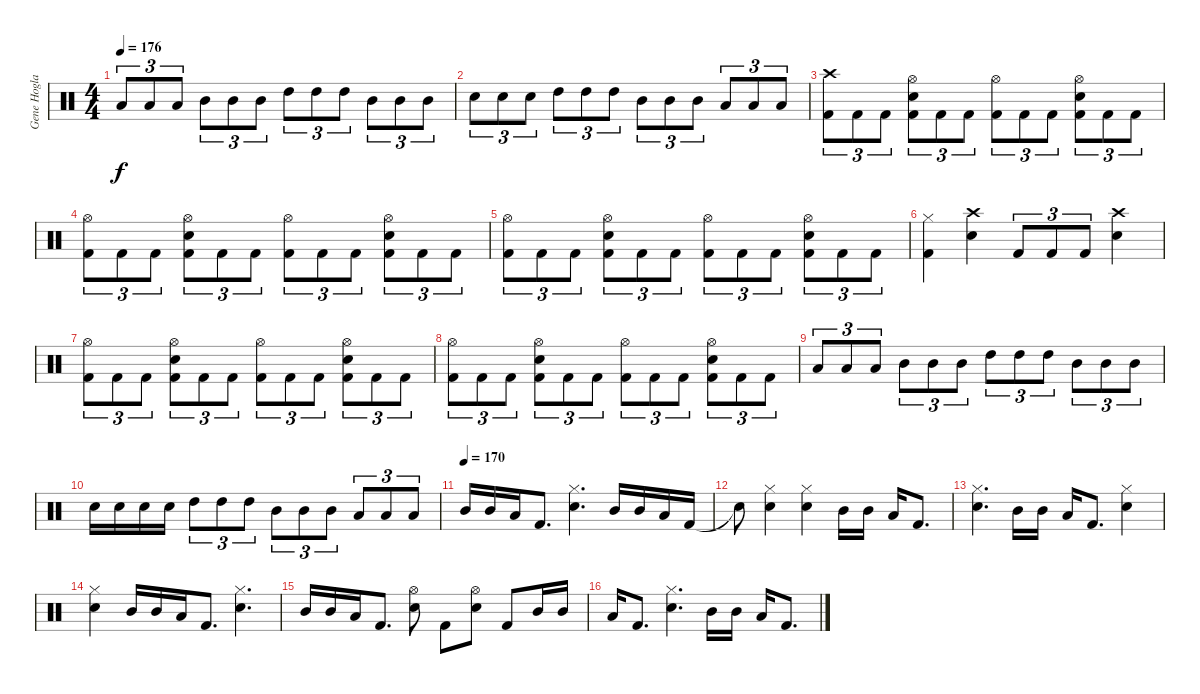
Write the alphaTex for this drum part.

\track ("Gene Hoglan" "Gene Hogla") {instrument percussion}
\staff {score}
\articulation defaults
\ts (4 4)
\tempo 176
\clef neutral
\ks c "Low Tom (hit)".8{tu (3 2) dy f} "Low Tom (hit)".8{tu (3 2)} "Low Tom (hit)".8{tu (3 2)} "Mid Tom (hit)".8{tu (3 2)} "Mid Tom (hit)".8{tu (3 2)} "Mid Tom (hit)".8{tu (3 2)} "High Tom (hit)".8{tu (3 2)} "High Tom (hit)".8{tu (3 2)} "High Tom (hit)".8{tu (3 2)} "Mid Tom (hit)".8{tu (3 2)} "Mid Tom (hit)".8{tu (3 2)} "Mid Tom (hit)".8{tu (3 2)}
|
"Snare (hit) 2".8{tu (3 2)} "Snare (hit) 2".8{tu (3 2)} "Snare (hit) 2".8{tu (3 2)} "High Tom (hit)".8{tu (3 2)} "High Tom (hit)".8{tu (3 2)} "High Tom (hit)".8{tu (3 2)} "Mid Tom (hit)".8{tu (3 2)} "Mid Tom (hit)".8{tu (3 2)} "Mid Tom (hit)".8{tu (3 2)} "Low Tom (hit)".8{tu (3 2)} "Low Tom (hit)".8{tu (3 2)} "Low Tom (hit)".8{tu (3 2)} |
("Crash high (hit)" "Kick (hit) 2").8{tu (3 2)} "Kick (hit) 2".8{tu (3 2)} "Kick (hit) 2".8{tu (3 2)} ("Hi-Hat (open)" "Snare (hit) 2" "Kick (hit) 2").8{tu (3 2)} "Kick (hit) 2".8{tu (3 2)} "Kick (hit) 2".8{tu (3 2)} ("Hi-Hat (open)" "Kick (hit) 2").8{tu (3 2)} "Kick (hit) 2".8{tu (3 2)} "Kick (hit) 2".8{tu (3 2)} ("Hi-Hat (open)" "Snare (hit) 2" "Kick (hit) 2").8{tu (3 2)} "Kick (hit) 2".8{tu (3 2)} "Kick (hit) 2".8{tu (3 2)} |
("Hi-Hat (open)" "Kick (hit) 2").8{tu (3 2)} "Kick (hit) 2".8{tu (3 2)} "Kick (hit) 2".8{tu (3 2)} ("Hi-Hat (open)" "Snare (hit) 2" "Kick (hit) 2").8{tu (3 2)} "Kick (hit) 2".8{tu (3 2)} "Kick (hit) 2".8{tu (3 2)} ("Hi-Hat (open)" "Kick (hit) 2").8{tu (3 2)} "Kick (hit) 2".8{tu (3 2)} "Kick (hit) 2".8{tu (3 2)} ("Hi-Hat (open)" "Snare (hit) 2" "Kick (hit) 2").8{tu (3 2)} "Kick (hit) 2".8{tu (3 2)} "Kick (hit) 2".8{tu (3 2)} |
("Hi-Hat (open)" "Kick (hit) 2").8{tu (3 2)} "Kick (hit) 2".8{tu (3 2)} "Kick (hit) 2".8{tu (3 2)} ("Hi-Hat (open)" "Snare (hit) 2" "Kick (hit) 2").8{tu (3 2)} "Kick (hit) 2".8{tu (3 2)} "Kick (hit) 2".8{tu (3 2)} ("Hi-Hat (open)" "Kick (hit) 2").8{tu (3 2)} "Kick (hit) 2".8{tu (3 2)} "Kick (hit) 2".8{tu (3 2)} ("Hi-Hat (open)" "Snare (hit) 2" "Kick (hit) 2").8{tu (3 2)} "Kick (hit) 2".8{tu (3 2)} "Kick (hit) 2".8{tu (3 2)} |
("Hi-Hat (closed)" "Kick (hit) 2").4 ("Crash high (hit)" "Snare (hit) 2").4 "Kick (hit) 2".8{tu (3 2)} "Kick (hit) 2".8{tu (3 2)} "Kick (hit) 2".8{tu (3 2)} ("Crash high (hit)" "Snare (hit) 2").4 |
("Hi-Hat (open)" "Kick (hit) 2").8{tu (3 2)} "Kick (hit) 2".8{tu (3 2)} "Kick (hit) 2".8{tu (3 2)} ("Hi-Hat (open)" "Snare (hit) 2" "Kick (hit) 2").8{tu (3 2)} "Kick (hit) 2".8{tu (3 2)} "Kick (hit) 2".8{tu (3 2)} ("Hi-Hat (open)" "Kick (hit) 2").8{tu (3 2)} "Kick (hit) 2".8{tu (3 2)} "Kick (hit) 2".8{tu (3 2)} ("Hi-Hat (open)" "Snare (hit) 2" "Kick (hit) 2").8{tu (3 2)} "Kick (hit) 2".8{tu (3 2)} "Kick (hit) 2".8{tu (3 2)} |
("Hi-Hat (open)" "Kick (hit) 2").8{tu (3 2)} "Kick (hit) 2".8{tu (3 2)} "Kick (hit) 2".8{tu (3 2)} ("Hi-Hat (open)" "Snare (hit) 2" "Kick (hit) 2").8{tu (3 2)} "Kick (hit) 2".8{tu (3 2)} "Kick (hit) 2".8{tu (3 2)} ("Hi-Hat (open)" "Kick (hit) 2").8{tu (3 2)} "Kick (hit) 2".8{tu (3 2)} "Kick (hit) 2".8{tu (3 2)} ("Hi-Hat (open)" "Snare (hit) 2" "Kick (hit) 2").8{tu (3 2)} "Kick (hit) 2".8{tu (3 2)} "Kick (hit) 2".8{tu (3 2)} |
"Low Tom (hit)".8{tu (3 2)} "Low Tom (hit)".8{tu (3 2)} "Low Tom (hit)".8{tu (3 2)} "Mid Tom (hit)".8{tu (3 2)} "Mid Tom (hit)".8{tu (3 2)} "Mid Tom (hit)".8{tu (3 2)} "High Tom (hit)".8{tu (3 2)} "High Tom (hit)".8{tu (3 2)} "High Tom (hit)".8{tu (3 2)} "Mid Tom (hit)".8{tu (3 2)} "Mid Tom (hit)".8{tu (3 2)} "Mid Tom (hit)".8{tu (3 2)} |
"Snare (hit) 2".16 "Snare (hit) 2".16 "Snare (hit) 2".16 "Snare (hit) 2".16 "High Tom (hit)".8{tu (3 2)} "High Tom (hit)".8{tu (3 2)} "High Tom (hit)".8{tu (3 2)} "Mid Tom (hit)".8{tu (3 2)} "Mid Tom (hit)".8{tu (3 2)} "Mid Tom (hit)".8{tu (3 2)} "Low Tom (hit)".8{tu (3 2)} "Low Tom (hit)".8{tu (3 2)} "Low Tom (hit)".8{tu (3 2)} |
\tempo (170)
"Mid Tom (hit)".16 "Mid Tom (hit)".16 "Low Tom (hit)".16 "Kick (hit) 2".8{d} ("Hi-Hat (closed)" "Snare (hit) 2").4{d} "Mid Tom (hit)".16 "Mid Tom (hit)".16 "Low Tom (hit)".16 "Kick (hit) 2".16 |
"Snare (hit) 2"{t}.8 ("Hi-Hat (closed)" "Snare (hit) 2").4 ("Hi-Hat (closed)" "Snare (hit) 2").4 "Mid Tom (hit)".16 "Mid Tom (hit)".16 "Low Tom (hit)".16 "Kick (hit) 2".8{d} |
("Hi-Hat (closed)" "Snare (hit) 2").4{d} "Mid Tom (hit)".16 "Mid Tom (hit)".16 "Low Tom (hit)".16 "Kick (hit) 2".8{d} ("Hi-Hat (closed)" "Snare (hit) 2").4 |
("Hi-Hat (closed)" "Snare (hit) 2").4 "Mid Tom (hit)".16 "Mid Tom (hit)".16 "Low Tom (hit)".16 "Kick (hit) 2".8{d} ("Hi-Hat (closed)" "Snare (hit) 2").4{d} |
"Mid Tom (hit)".16 "Mid Tom (hit)".16 "Low Tom (hit)".16 "Kick (hit) 2".8{d} ("Hi-Hat (open)" "Snare (hit) 2").8 "Kick (hit) 2".8 ("Hi-Hat (open)" "Snare (hit) 2").8 "Kick (hit) 2".8 "Mid Tom (hit)".16 "Mid Tom (hit)".16 |
"Low Tom (hit)".16 "Kick (hit) 2".8{d} ("Hi-Hat (closed)" "Snare (hit) 2").4{d} "Mid Tom (hit)".16 "Mid Tom (hit)".16 "Low Tom (hit)".16 "Kick (hit) 2".8{d}
